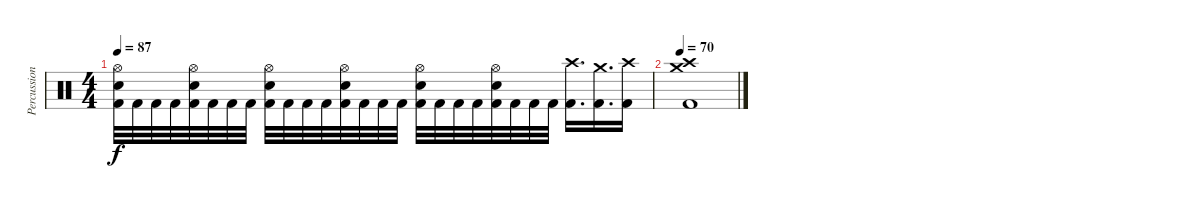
\track ("Percussion" "Percussion") {instrument percussion}
\staff {score}
\articulation defaults
\ts (4 4)
\tempo 87
\clef neutral
\ks c
("Hi-Hat (open)" "Electric Snare (hit)" "Kick (hit) 2").32{dy f} "Kick (hit) 2".32 "Kick (hit) 2".32 "Kick (hit) 2".32 ("Hi-Hat (open)" "Electric Snare (hit)" "Kick (hit) 2").32 "Kick (hit) 2".32 "Kick (hit) 2".32 "Kick (hit) 2".32 ("Hi-Hat (open)" "Electric Snare (hit)" "Kick (hit) 2").32 "Kick (hit) 2".32 "Kick (hit) 2".32 "Kick (hit) 2".32 ("Hi-Hat (open)" "Electric Snare (hit)" "Kick (hit) 2").32 "Kick (hit) 2".32 "Kick (hit) 2".32 "Kick (hit) 2".32 ("Hi-Hat (open)" "Electric Snare (hit)" "Kick (hit) 2").32 "Kick (hit) 2".32 "Kick (hit) 2".32 "Kick (hit) 2".32 ("Hi-Hat (open)" "Electric Snare (hit)" "Kick (hit) 2").32 "Kick (hit) 2".32 "Kick (hit) 2".32 "Kick (hit) 2".32 ("Crash high (hit)" "Kick (hit) 2").16{d} ("Crash medium (hit)" "Kick (hit) 2").16{d} ("Crash high (hit)" "Kick (hit) 2").16 |
\tempo 70
("Crash medium (hit)" "Crash high (hit)" "Kick (hit) 2").1
